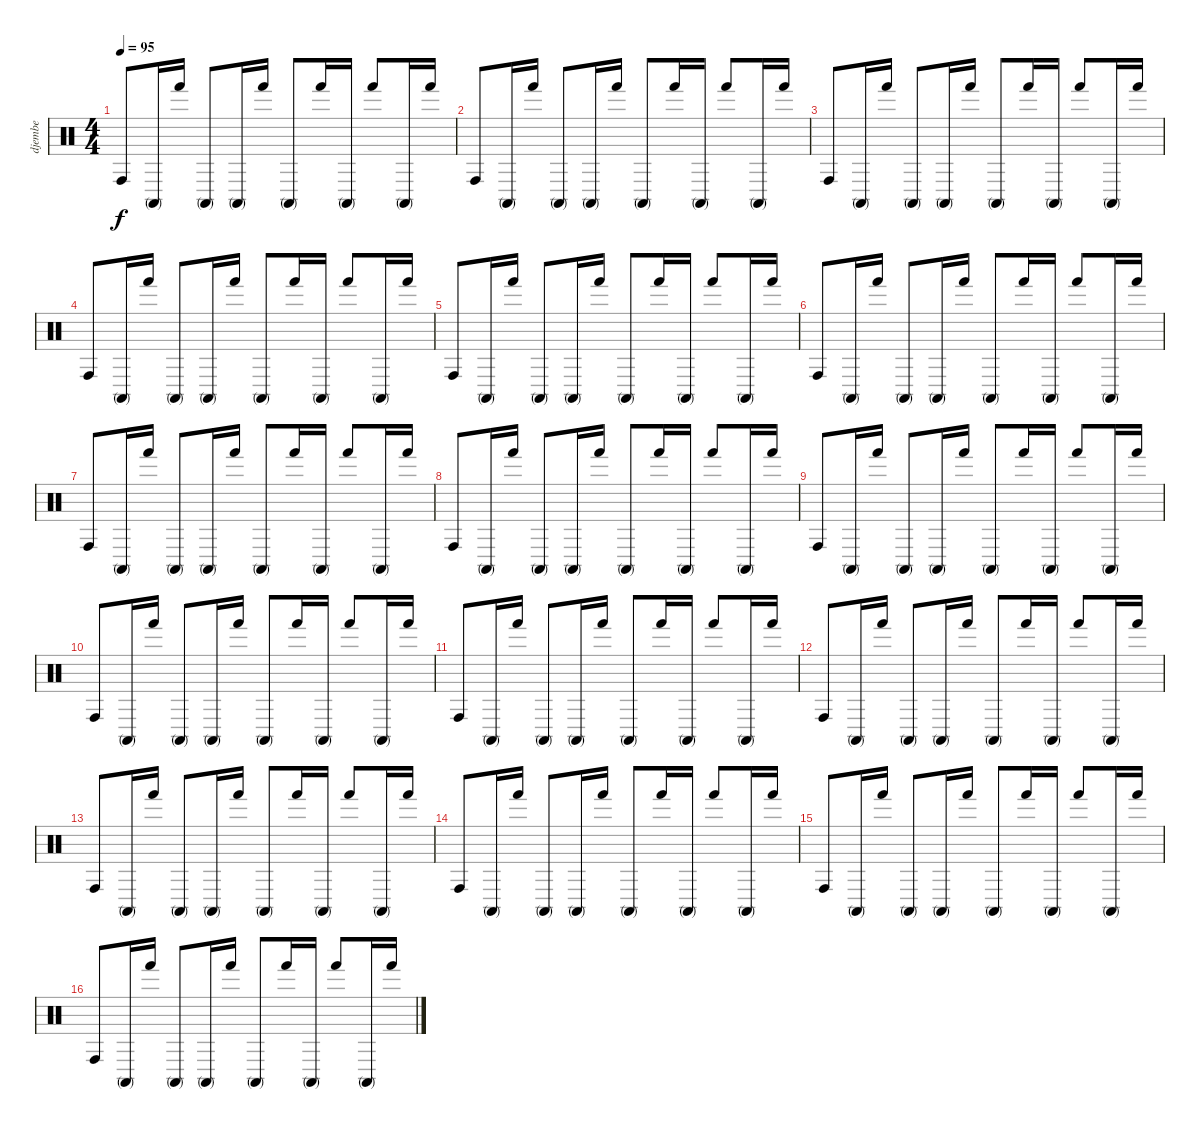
\track ("djembe" "djembe") {instrument percussion}
\staff {score}
\articulation defaults
\ts (4 4)
\tempo 95
\clef neutral
\ks c "Conga high (hit)".8{dy f} "Conga high (mute)".16 "Hand (hit)".16 "Conga high (mute)".8 "Conga high (mute)".16 "Hand (hit)".16 "Conga high (mute)".8 "Hand (hit)".16 "Conga high (mute)".16 "Hand (hit)".8 "Conga high (mute)".16 "Hand (hit)".16
|
"Conga high (hit)".8 "Conga high (mute)".16 "Hand (hit)".16 "Conga high (mute)".8 "Conga high (mute)".16 "Hand (hit)".16 "Conga high (mute)".8 "Hand (hit)".16 "Conga high (mute)".16 "Hand (hit)".8 "Conga high (mute)".16 "Hand (hit)".16 |
"Conga high (hit)".8 "Conga high (mute)".16 "Hand (hit)".16 "Conga high (mute)".8 "Conga high (mute)".16 "Hand (hit)".16 "Conga high (mute)".8 "Hand (hit)".16 "Conga high (mute)".16 "Hand (hit)".8 "Conga high (mute)".16 "Hand (hit)".16 |
"Conga high (hit)".8 "Conga high (mute)".16 "Hand (hit)".16 "Conga high (mute)".8 "Conga high (mute)".16 "Hand (hit)".16 "Conga high (mute)".8 "Hand (hit)".16 "Conga high (mute)".16 "Hand (hit)".8 "Conga high (mute)".16 "Hand (hit)".16 |
"Conga high (hit)".8 "Conga high (mute)".16 "Hand (hit)".16 "Conga high (mute)".8 "Conga high (mute)".16 "Hand (hit)".16 "Conga high (mute)".8 "Hand (hit)".16 "Conga high (mute)".16 "Hand (hit)".8 "Conga high (mute)".16 "Hand (hit)".16 |
"Conga high (hit)".8 "Conga high (mute)".16 "Hand (hit)".16 "Conga high (mute)".8 "Conga high (mute)".16 "Hand (hit)".16 "Conga high (mute)".8 "Hand (hit)".16 "Conga high (mute)".16 "Hand (hit)".8 "Conga high (mute)".16 "Hand (hit)".16 |
"Conga high (hit)".8 "Conga high (mute)".16 "Hand (hit)".16 "Conga high (mute)".8 "Conga high (mute)".16 "Hand (hit)".16 "Conga high (mute)".8 "Hand (hit)".16 "Conga high (mute)".16 "Hand (hit)".8 "Conga high (mute)".16 "Hand (hit)".16 |
"Conga high (hit)".8 "Conga high (mute)".16 "Hand (hit)".16 "Conga high (mute)".8 "Conga high (mute)".16 "Hand (hit)".16 "Conga high (mute)".8 "Hand (hit)".16 "Conga high (mute)".16 "Hand (hit)".8 "Conga high (mute)".16 "Hand (hit)".16 |
"Conga high (hit)".8 "Conga high (mute)".16 "Hand (hit)".16 "Conga high (mute)".8 "Conga high (mute)".16 "Hand (hit)".16 "Conga high (mute)".8 "Hand (hit)".16 "Conga high (mute)".16 "Hand (hit)".8 "Conga high (mute)".16 "Hand (hit)".16 |
"Conga high (hit)".8 "Conga high (mute)".16 "Hand (hit)".16 "Conga high (mute)".8 "Conga high (mute)".16 "Hand (hit)".16 "Conga high (mute)".8 "Hand (hit)".16 "Conga high (mute)".16 "Hand (hit)".8 "Conga high (mute)".16 "Hand (hit)".16 |
"Conga high (hit)".8 "Conga high (mute)".16 "Hand (hit)".16 "Conga high (mute)".8 "Conga high (mute)".16 "Hand (hit)".16 "Conga high (mute)".8 "Hand (hit)".16 "Conga high (mute)".16 "Hand (hit)".8 "Conga high (mute)".16 "Hand (hit)".16 |
"Conga high (hit)".8 "Conga high (mute)".16 "Hand (hit)".16 "Conga high (mute)".8 "Conga high (mute)".16 "Hand (hit)".16 "Conga high (mute)".8 "Hand (hit)".16 "Conga high (mute)".16 "Hand (hit)".8 "Conga high (mute)".16 "Hand (hit)".16 |
"Conga high (hit)".8 "Conga high (mute)".16 "Hand (hit)".16 "Conga high (mute)".8 "Conga high (mute)".16 "Hand (hit)".16 "Conga high (mute)".8 "Hand (hit)".16 "Conga high (mute)".16 "Hand (hit)".8 "Conga high (mute)".16 "Hand (hit)".16 |
"Conga high (hit)".8 "Conga high (mute)".16 "Hand (hit)".16 "Conga high (mute)".8 "Conga high (mute)".16 "Hand (hit)".16 "Conga high (mute)".8 "Hand (hit)".16 "Conga high (mute)".16 "Hand (hit)".8 "Conga high (mute)".16 "Hand (hit)".16 |
"Conga high (hit)".8 "Conga high (mute)".16 "Hand (hit)".16 "Conga high (mute)".8 "Conga high (mute)".16 "Hand (hit)".16 "Conga high (mute)".8 "Hand (hit)".16 "Conga high (mute)".16 "Hand (hit)".8 "Conga high (mute)".16 "Hand (hit)".16 |
"Conga high (hit)".8 "Conga high (mute)".16 "Hand (hit)".16 "Conga high (mute)".8 "Conga high (mute)".16 "Hand (hit)".16 "Conga high (mute)".8 "Hand (hit)".16 "Conga high (mute)".16 "Hand (hit)".8 "Conga high (mute)".16 "Hand (hit)".16
